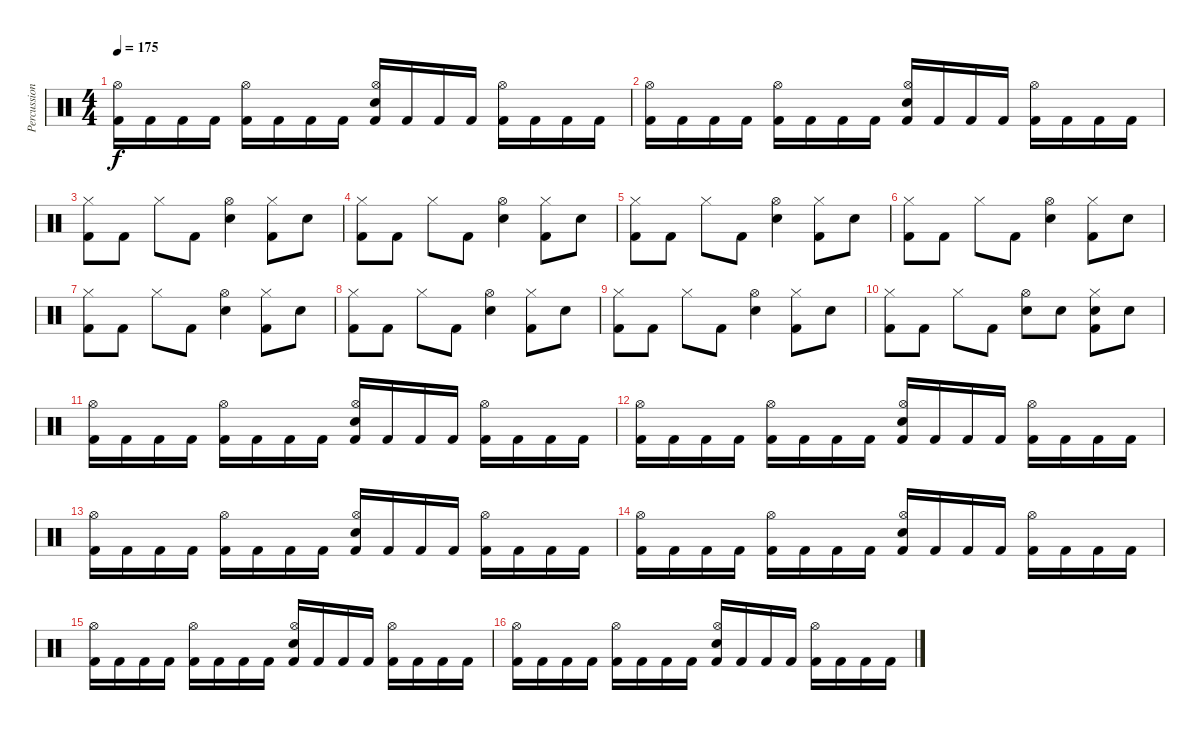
\track ("Percussion" "Percussion") {instrument percussion}
\staff {score}
\articulation defaults
\ts (4 4)
\tempo 175
\clef neutral
\ks c
("Kick (hit) 2" "Hi-Hat (open)").16{dy f} "Kick (hit) 2".16 "Kick (hit) 2".16 "Kick (hit) 2".16 ("Kick (hit) 2" "Hi-Hat (open)").16 "Kick (hit) 2".16 "Kick (hit) 2".16 "Kick (hit) 2".16 ("Kick (hit) 2" "Electric Snare (hit)" "Hi-Hat (open)").16 "Kick (hit) 2".16 "Kick (hit) 2".16 "Kick (hit) 2".16 ("Kick (hit) 2" "Hi-Hat (open)").16 "Kick (hit) 2".16 "Kick (hit) 2".16 "Kick (hit) 2".16 |
("Kick (hit) 2" "Hi-Hat (open)").16 "Kick (hit) 2".16 "Kick (hit) 2".16 "Kick (hit) 2".16 ("Kick (hit) 2" "Hi-Hat (open)").16 "Kick (hit) 2".16 "Kick (hit) 2".16 "Kick (hit) 2".16 ("Kick (hit) 2" "Electric Snare (hit)" "Hi-Hat (open)").16 "Kick (hit) 2".16 "Kick (hit) 2".16 "Kick (hit) 2".16 ("Kick (hit) 2" "Hi-Hat (open)").16 "Kick (hit) 2".16 "Kick (hit) 2".16 "Kick (hit) 2".16 |
("Hi-Hat (closed)" "Kick (hit) 2").8 "Kick (hit) 2".8 "Hi-Hat (closed)".8 "Kick (hit) 2".8 ("Hi-Hat (open)" "Electric Snare (hit)").4 ("Hi-Hat (closed)" "Kick (hit) 2").8 "Electric Snare (hit)".8 |
("Hi-Hat (closed)" "Kick (hit) 2").8 "Kick (hit) 2".8 "Hi-Hat (closed)".8 "Kick (hit) 2".8 ("Hi-Hat (open)" "Electric Snare (hit)").4 ("Hi-Hat (closed)" "Kick (hit) 2").8 "Electric Snare (hit)".8 |
("Hi-Hat (closed)" "Kick (hit) 2").8 "Kick (hit) 2".8 "Hi-Hat (closed)".8 "Kick (hit) 2".8 ("Hi-Hat (open)" "Electric Snare (hit)").4 ("Hi-Hat (closed)" "Kick (hit) 2").8 "Electric Snare (hit)".8 |
("Hi-Hat (closed)" "Kick (hit) 2").8 "Kick (hit) 2".8 "Hi-Hat (closed)".8 "Kick (hit) 2".8 ("Hi-Hat (open)" "Electric Snare (hit)").4 ("Hi-Hat (closed)" "Kick (hit) 2").8 "Electric Snare (hit)".8 |
("Hi-Hat (closed)" "Kick (hit) 2").8 "Kick (hit) 2".8 "Hi-Hat (closed)".8 "Kick (hit) 2".8 ("Hi-Hat (open)" "Electric Snare (hit)").4 ("Hi-Hat (closed)" "Kick (hit) 2").8 "Electric Snare (hit)".8 |
("Hi-Hat (closed)" "Kick (hit) 2").8 "Kick (hit) 2".8 "Hi-Hat (closed)".8 "Kick (hit) 2".8 ("Hi-Hat (open)" "Electric Snare (hit)").4 ("Hi-Hat (closed)" "Kick (hit) 2").8 "Electric Snare (hit)".8 |
("Hi-Hat (closed)" "Kick (hit) 2").8 "Kick (hit) 2".8 "Hi-Hat (closed)".8 "Kick (hit) 2".8 ("Hi-Hat (open)" "Electric Snare (hit)").4 ("Hi-Hat (closed)" "Kick (hit) 2").8 "Electric Snare (hit)".8 |
("Hi-Hat (closed)" "Kick (hit) 2").8 "Kick (hit) 2".8 "Hi-Hat (closed)".8 "Kick (hit) 2".8 ("Hi-Hat (open)" "Electric Snare (hit)").8 "Electric Snare (hit)".8 ("Hi-Hat (closed)" "Electric Snare (hit)" "Kick (hit) 2").8 "Electric Snare (hit)".8 |
("Kick (hit) 2" "Hi-Hat (open)").16 "Kick (hit) 2".16 "Kick (hit) 2".16 "Kick (hit) 2".16 ("Kick (hit) 2" "Hi-Hat (open)").16 "Kick (hit) 2".16 "Kick (hit) 2".16 "Kick (hit) 2".16 ("Kick (hit) 2" "Electric Snare (hit)" "Hi-Hat (open)").16 "Kick (hit) 2".16 "Kick (hit) 2".16 "Kick (hit) 2".16 ("Kick (hit) 2" "Hi-Hat (open)").16 "Kick (hit) 2".16 "Kick (hit) 2".16 "Kick (hit) 2".16 |
("Kick (hit) 2" "Hi-Hat (open)").16 "Kick (hit) 2".16 "Kick (hit) 2".16 "Kick (hit) 2".16 ("Kick (hit) 2" "Hi-Hat (open)").16 "Kick (hit) 2".16 "Kick (hit) 2".16 "Kick (hit) 2".16 ("Kick (hit) 2" "Electric Snare (hit)" "Hi-Hat (open)").16 "Kick (hit) 2".16 "Kick (hit) 2".16 "Kick (hit) 2".16 ("Kick (hit) 2" "Hi-Hat (open)").16 "Kick (hit) 2".16 "Kick (hit) 2".16 "Kick (hit) 2".16 |
("Kick (hit) 2" "Hi-Hat (open)").16 "Kick (hit) 2".16 "Kick (hit) 2".16 "Kick (hit) 2".16 ("Kick (hit) 2" "Hi-Hat (open)").16 "Kick (hit) 2".16 "Kick (hit) 2".16 "Kick (hit) 2".16 ("Kick (hit) 2" "Electric Snare (hit)" "Hi-Hat (open)").16 "Kick (hit) 2".16 "Kick (hit) 2".16 "Kick (hit) 2".16 ("Kick (hit) 2" "Hi-Hat (open)").16 "Kick (hit) 2".16 "Kick (hit) 2".16 "Kick (hit) 2".16 |
("Kick (hit) 2" "Hi-Hat (open)").16 "Kick (hit) 2".16 "Kick (hit) 2".16 "Kick (hit) 2".16 ("Kick (hit) 2" "Hi-Hat (open)").16 "Kick (hit) 2".16 "Kick (hit) 2".16 "Kick (hit) 2".16 ("Kick (hit) 2" "Electric Snare (hit)" "Hi-Hat (open)").16 "Kick (hit) 2".16 "Kick (hit) 2".16 "Kick (hit) 2".16 ("Kick (hit) 2" "Hi-Hat (open)").16 "Kick (hit) 2".16 "Kick (hit) 2".16 "Kick (hit) 2".16 |
("Kick (hit) 2" "Hi-Hat (open)").16 "Kick (hit) 2".16 "Kick (hit) 2".16 "Kick (hit) 2".16 ("Kick (hit) 2" "Hi-Hat (open)").16 "Kick (hit) 2".16 "Kick (hit) 2".16 "Kick (hit) 2".16 ("Kick (hit) 2" "Electric Snare (hit)" "Hi-Hat (open)").16 "Kick (hit) 2".16 "Kick (hit) 2".16 "Kick (hit) 2".16 ("Kick (hit) 2" "Hi-Hat (open)").16 "Kick (hit) 2".16 "Kick (hit) 2".16 "Kick (hit) 2".16 |
("Kick (hit) 2" "Hi-Hat (open)").16 "Kick (hit) 2".16 "Kick (hit) 2".16 "Kick (hit) 2".16 ("Kick (hit) 2" "Hi-Hat (open)").16 "Kick (hit) 2".16 "Kick (hit) 2".16 "Kick (hit) 2".16 ("Kick (hit) 2" "Electric Snare (hit)" "Hi-Hat (open)").16 "Kick (hit) 2".16 "Kick (hit) 2".16 "Kick (hit) 2".16 ("Kick (hit) 2" "Hi-Hat (open)").16 "Kick (hit) 2".16 "Kick (hit) 2".16 "Kick (hit) 2".16
